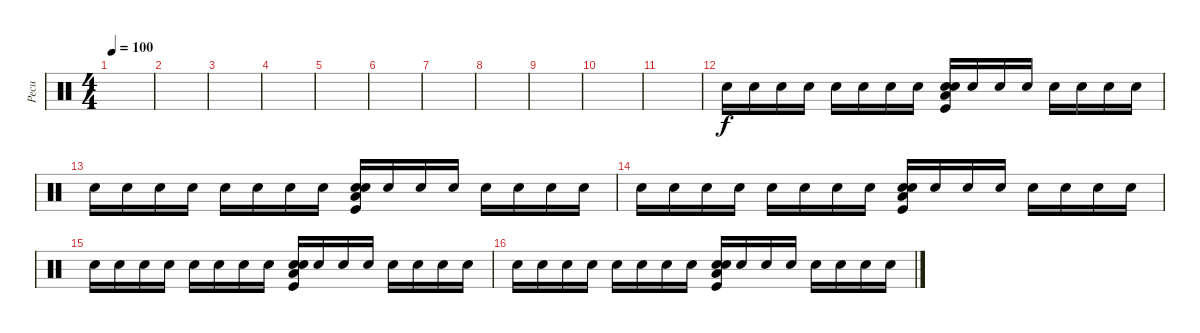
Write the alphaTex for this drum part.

\track ("Pecu" "Pecu") {instrument percussion}
\staff {score}
\articulation defaults
\ts (4 4)
\tempo 100
\clef neutral
\ks c
|
|
|
|
|
|
|
|
|
|
|
"Snare (hit)".16 "Snare (hit)".16 "Snare (hit)".16 "Snare (hit)".16 "Snare (hit)".16 "Snare (hit)".16 "Snare (hit)".16 "Snare (hit)".16 ("Snare (hit)" "Snare (hit)" "Low Floor Tom (hit)" "Kick (hit)").16 "Snare (hit)".16 "Snare (hit)".16 "Snare (hit)".16 "Snare (hit)".16 "Snare (hit)".16 "Snare (hit)".16 "Snare (hit)".16 |
"Snare (hit)".16 "Snare (hit)".16 "Snare (hit)".16 "Snare (hit)".16 "Snare (hit)".16 "Snare (hit)".16 "Snare (hit)".16 "Snare (hit)".16 ("Snare (hit)" "Snare (hit)" "Low Floor Tom (hit)" "Kick (hit)").16 "Snare (hit)".16 "Snare (hit)".16 "Snare (hit)".16 "Snare (hit)".16 "Snare (hit)".16 "Snare (hit)".16 "Snare (hit)".16 |
"Snare (hit)".16 "Snare (hit)".16 "Snare (hit)".16 "Snare (hit)".16 "Snare (hit)".16 "Snare (hit)".16 "Snare (hit)".16 "Snare (hit)".16 ("Snare (hit)" "Snare (hit)" "Low Floor Tom (hit)" "Kick (hit)").16 "Snare (hit)".16 "Snare (hit)".16 "Snare (hit)".16 "Snare (hit)".16 "Snare (hit)".16 "Snare (hit)".16 "Snare (hit)".16 |
"Snare (hit)".16 "Snare (hit)".16 "Snare (hit)".16 "Snare (hit)".16 "Snare (hit)".16 "Snare (hit)".16 "Snare (hit)".16 "Snare (hit)".16 ("Snare (hit)" "Snare (hit)" "Low Floor Tom (hit)" "Kick (hit)").16 "Snare (hit)".16 "Snare (hit)".16 "Snare (hit)".16 "Snare (hit)".16 "Snare (hit)".16 "Snare (hit)".16 "Snare (hit)".16 |
"Snare (hit)".16 "Snare (hit)".16 "Snare (hit)".16 "Snare (hit)".16 "Snare (hit)".16 "Snare (hit)".16 "Snare (hit)".16 "Snare (hit)".16 ("Snare (hit)" "Snare (hit)" "Low Floor Tom (hit)" "Kick (hit)").16 "Snare (hit)".16 "Snare (hit)".16 "Snare (hit)".16 "Snare (hit)".16 "Snare (hit)".16 "Snare (hit)".16 "Snare (hit)".16
